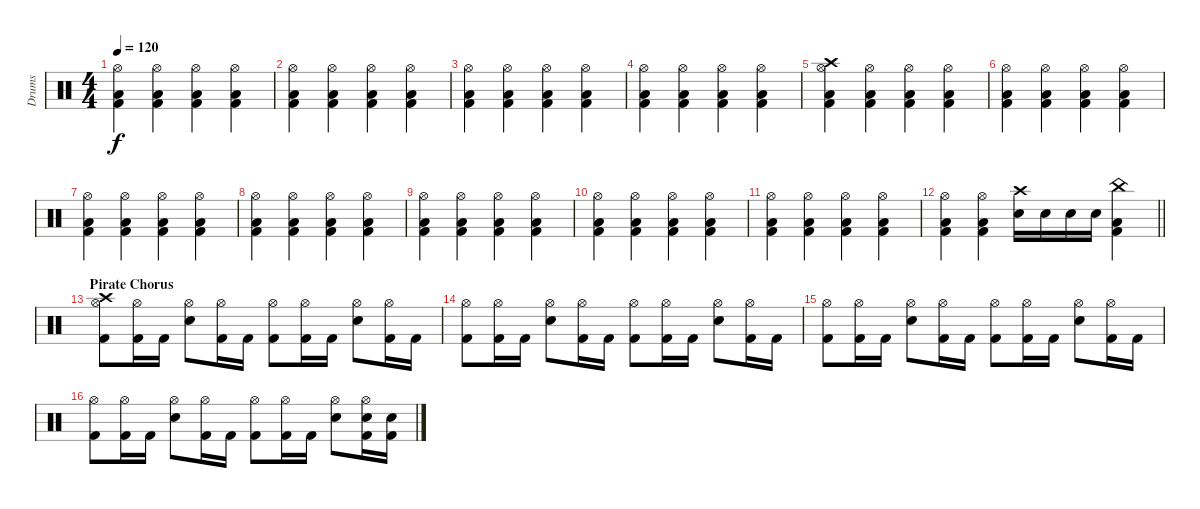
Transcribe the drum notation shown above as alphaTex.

\track ("Drums" "Drums") {instrument percussion}
\staff {score}
\articulation defaults
\ts (4 4)
\tempo 120
\clef neutral
\ks c
("Hi-Hat (open)" "Low Floor Tom (hit)" "Kick (hit) 2").4{dy f} ("Hi-Hat (open)" "Low Floor Tom (hit)" "Kick (hit) 2").4 ("Hi-Hat (open)" "Low Floor Tom (hit)" "Kick (hit) 2").4 ("Hi-Hat (open)" "Low Floor Tom (hit)" "Kick (hit) 2").4 |
("Hi-Hat (open)" "Low Floor Tom (hit)" "Kick (hit) 2").4 ("Hi-Hat (open)" "Low Floor Tom (hit)" "Kick (hit) 2").4 ("Hi-Hat (open)" "Low Floor Tom (hit)" "Kick (hit) 2").4 ("Hi-Hat (open)" "Low Floor Tom (hit)" "Kick (hit) 2").4 |
("Hi-Hat (open)" "Low Floor Tom (hit)" "Kick (hit) 2").4 ("Hi-Hat (open)" "Low Floor Tom (hit)" "Kick (hit) 2").4 ("Hi-Hat (open)" "Low Floor Tom (hit)" "Kick (hit) 2").4 ("Hi-Hat (open)" "Low Floor Tom (hit)" "Kick (hit) 2").4 |
("Hi-Hat (open)" "Low Floor Tom (hit)" "Kick (hit) 2").4 ("Hi-Hat (open)" "Low Floor Tom (hit)" "Kick (hit) 2").4 ("Hi-Hat (open)" "Low Floor Tom (hit)" "Kick (hit) 2").4 ("Hi-Hat (open)" "Low Floor Tom (hit)" "Kick (hit) 2").4 |
("Crash high (hit)" "Hi-Hat (open)" "Low Floor Tom (hit)" "Kick (hit) 2").4 ("Hi-Hat (open)" "Low Floor Tom (hit)" "Kick (hit) 2").4 ("Hi-Hat (open)" "Low Floor Tom (hit)" "Kick (hit) 2").4 ("Hi-Hat (open)" "Low Floor Tom (hit)" "Kick (hit) 2").4 |
("Hi-Hat (open)" "Low Floor Tom (hit)" "Kick (hit) 2").4 ("Hi-Hat (open)" "Low Floor Tom (hit)" "Kick (hit) 2").4 ("Hi-Hat (open)" "Low Floor Tom (hit)" "Kick (hit) 2").4 ("Hi-Hat (open)" "Low Floor Tom (hit)" "Kick (hit) 2").4 |
("Hi-Hat (open)" "Low Floor Tom (hit)" "Kick (hit) 2").4 ("Hi-Hat (open)" "Low Floor Tom (hit)" "Kick (hit) 2").4 ("Hi-Hat (open)" "Low Floor Tom (hit)" "Kick (hit) 2").4 ("Hi-Hat (open)" "Low Floor Tom (hit)" "Kick (hit) 2").4 |
("Hi-Hat (open)" "Low Floor Tom (hit)" "Kick (hit) 2").4 ("Hi-Hat (open)" "Low Floor Tom (hit)" "Kick (hit) 2").4 ("Hi-Hat (open)" "Low Floor Tom (hit)" "Kick (hit) 2").4 ("Hi-Hat (open)" "Low Floor Tom (hit)" "Kick (hit) 2").4 |
("Hi-Hat (open)" "Low Floor Tom (hit)" "Kick (hit) 2").4 ("Hi-Hat (open)" "Low Floor Tom (hit)" "Kick (hit) 2").4 ("Hi-Hat (open)" "Low Floor Tom (hit)" "Kick (hit) 2").4 ("Hi-Hat (open)" "Low Floor Tom (hit)" "Kick (hit) 2").4 |
("Hi-Hat (open)" "Low Floor Tom (hit)" "Kick (hit) 2").4 ("Hi-Hat (open)" "Low Floor Tom (hit)" "Kick (hit) 2").4 ("Hi-Hat (open)" "Low Floor Tom (hit)" "Kick (hit) 2").4 ("Hi-Hat (open)" "Low Floor Tom (hit)" "Kick (hit) 2").4 |
("Hi-Hat (open)" "Low Floor Tom (hit)" "Kick (hit) 2").4 ("Hi-Hat (open)" "Low Floor Tom (hit)" "Kick (hit) 2").4 ("Hi-Hat (open)" "Low Floor Tom (hit)" "Kick (hit) 2").4 ("Hi-Hat (open)" "Low Floor Tom (hit)" "Kick (hit) 2").4 |
\barLineRight lightlight
("Hi-Hat (open)" "Low Floor Tom (hit)" "Kick (hit) 2").4 ("Hi-Hat (open)" "Low Floor Tom (hit)" "Kick (hit) 2").4 ("Crash high (hit)" "Snare (hit) 2").16 "Snare (hit) 2".16 "Snare (hit) 2".16 "Snare (hit) 2".16 ("China (hit)" "Low Floor Tom (hit)" "Kick (hit) 2").4 |
\section ("" "Pirate Chorus")
("Crash high (hit)" "Hi-Hat (open)" "Kick (hit) 2").8 ("Hi-Hat (open)" "Kick (hit) 2").16 "Kick (hit) 2".16 ("Hi-Hat (open)" "Snare (hit) 2").8 ("Hi-Hat (open)" "Kick (hit) 2").16 "Kick (hit) 2".16 ("Hi-Hat (open)" "Kick (hit) 2").8 ("Hi-Hat (open)" "Kick (hit) 2").16 "Kick (hit) 2".16 ("Hi-Hat (open)" "Snare (hit) 2").8 ("Hi-Hat (open)" "Kick (hit) 2").16 "Kick (hit) 2".16 |
("Hi-Hat (open)" "Kick (hit) 2").8 ("Hi-Hat (open)" "Kick (hit) 2").16 "Kick (hit) 2".16 ("Hi-Hat (open)" "Snare (hit) 2").8 ("Hi-Hat (open)" "Kick (hit) 2").16 "Kick (hit) 2".16 ("Hi-Hat (open)" "Kick (hit) 2").8 ("Hi-Hat (open)" "Kick (hit) 2").16 "Kick (hit) 2".16 ("Hi-Hat (open)" "Snare (hit) 2").8 ("Hi-Hat (open)" "Kick (hit) 2").16 "Kick (hit) 2".16 |
("Hi-Hat (open)" "Kick (hit) 2").8 ("Hi-Hat (open)" "Kick (hit) 2").16 "Kick (hit) 2".16 ("Hi-Hat (open)" "Snare (hit) 2").8 ("Hi-Hat (open)" "Kick (hit) 2").16 "Kick (hit) 2".16 ("Hi-Hat (open)" "Kick (hit) 2").8 ("Hi-Hat (open)" "Kick (hit) 2").16 "Kick (hit) 2".16 ("Hi-Hat (open)" "Snare (hit) 2").8 ("Hi-Hat (open)" "Kick (hit) 2").16 "Kick (hit) 2".16 |
("Hi-Hat (open)" "Kick (hit) 2").8 ("Hi-Hat (open)" "Kick (hit) 2").16 "Kick (hit) 2".16 ("Hi-Hat (open)" "Snare (hit) 2").8 ("Hi-Hat (open)" "Kick (hit) 2").16 "Kick (hit) 2".16 ("Hi-Hat (open)" "Kick (hit) 2").8 ("Hi-Hat (open)" "Kick (hit) 2").16 "Kick (hit) 2".16 ("Hi-Hat (open)" "Snare (hit) 2").8 ("Hi-Hat (open)" "Snare (hit) 2" "Kick (hit) 2").16 ("Snare (hit) 2" "Kick (hit) 2").16
